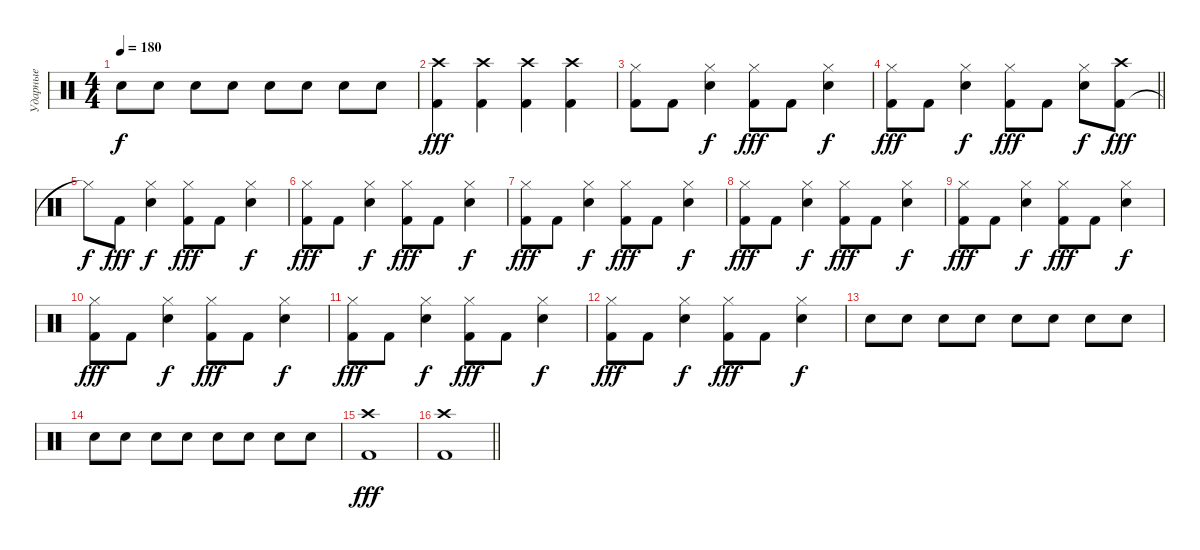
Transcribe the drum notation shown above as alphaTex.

\track ("Ударные" "Ударные") {instrument percussion}
\staff
\articulation defaults
\ts (4 4)
\tempo 180
\clef neutral
\ks c "Snare (hit) 2".8{dy f} "Snare (hit) 2".8 "Snare (hit) 2".8 "Snare (hit) 2".8 "Snare (hit) 2".8 "Snare (hit) 2".8 "Snare (hit) 2".8 "Snare (hit) 2".8
|
("Kick (hit) 2" "Crash high (hit)").4{dy fff} ("Kick (hit) 2" "Crash high (hit)").4 ("Kick (hit) 2" "Crash high (hit)").4 ("Kick (hit) 2" "Crash high (hit)").4 |
("Kick (hit) 2" "Hi-Hat (closed)").8 "Kick (hit) 2".8 ("Snare (hit) 2" "Hi-Hat (closed)").4{dy f} ("Kick (hit) 2" "Hi-Hat (closed)").8{dy fff} "Kick (hit) 2".8 ("Snare (hit) 2" "Hi-Hat (closed)").4{dy f} |
\barLineRight lightlight
("Kick (hit) 2" "Hi-Hat (closed)").8{dy fff} "Kick (hit) 2".8 ("Snare (hit) 2" "Hi-Hat (closed)").4{dy f} ("Kick (hit) 2" "Hi-Hat (closed)").8{dy fff} "Kick (hit) 2".8 ("Snare (hit) 2" "Hi-Hat (closed)").8{dy f} ("Kick (hit) 2" "Crash high (hit)").8{dy fff} |
"Hi-Hat (closed)"{t}.8{dy f} "Kick (hit) 2".8{dy fff} ("Snare (hit) 2" "Hi-Hat (closed)").4{dy f} ("Kick (hit) 2" "Hi-Hat (closed)").8{dy fff} "Kick (hit) 2".8 ("Snare (hit) 2" "Hi-Hat (closed)").4{dy f} |
("Kick (hit) 2" "Hi-Hat (closed)").8{dy fff} "Kick (hit) 2".8 ("Snare (hit) 2" "Hi-Hat (closed)").4{dy f} ("Kick (hit) 2" "Hi-Hat (closed)").8{dy fff} "Kick (hit) 2".8 ("Snare (hit) 2" "Hi-Hat (closed)").4{dy f} |
("Kick (hit) 2" "Hi-Hat (closed)").8{dy fff} "Kick (hit) 2".8 ("Snare (hit) 2" "Hi-Hat (closed)").4{dy f} ("Kick (hit) 2" "Hi-Hat (closed)").8{dy fff} "Kick (hit) 2".8 ("Snare (hit) 2" "Hi-Hat (closed)").4{dy f} |
("Kick (hit) 2" "Hi-Hat (closed)").8{dy fff} "Kick (hit) 2".8 ("Snare (hit) 2" "Hi-Hat (closed)").4{dy f} ("Kick (hit) 2" "Hi-Hat (closed)").8{dy fff} "Kick (hit) 2".8 ("Snare (hit) 2" "Hi-Hat (closed)").4{dy f} |
("Kick (hit) 2" "Hi-Hat (closed)").8{dy fff} "Kick (hit) 2".8 ("Snare (hit) 2" "Hi-Hat (closed)").4{dy f} ("Kick (hit) 2" "Hi-Hat (closed)").8{dy fff} "Kick (hit) 2".8 ("Snare (hit) 2" "Hi-Hat (closed)").4{dy f} |
("Kick (hit) 2" "Hi-Hat (closed)").8{dy fff} "Kick (hit) 2".8 ("Snare (hit) 2" "Hi-Hat (closed)").4{dy f} ("Kick (hit) 2" "Hi-Hat (closed)").8{dy fff} "Kick (hit) 2".8 ("Snare (hit) 2" "Hi-Hat (closed)").4{dy f} |
("Kick (hit) 2" "Hi-Hat (closed)").8{dy fff} "Kick (hit) 2".8 ("Snare (hit) 2" "Hi-Hat (closed)").4{dy f} ("Kick (hit) 2" "Hi-Hat (closed)").8{dy fff} "Kick (hit) 2".8 ("Snare (hit) 2" "Hi-Hat (closed)").4{dy f} |
("Kick (hit) 2" "Hi-Hat (closed)").8{dy fff} "Kick (hit) 2".8 ("Snare (hit) 2" "Hi-Hat (closed)").4{dy f} ("Kick (hit) 2" "Hi-Hat (closed)").8{dy fff} "Kick (hit) 2".8 ("Snare (hit) 2" "Hi-Hat (closed)").4{dy f} |
"Snare (hit) 2".8 "Snare (hit) 2".8 "Snare (hit) 2".8 "Snare (hit) 2".8 "Snare (hit) 2".8 "Snare (hit) 2".8 "Snare (hit) 2".8 "Snare (hit) 2".8 |
"Snare (hit) 2".8 "Snare (hit) 2".8 "Snare (hit) 2".8 "Snare (hit) 2".8 "Snare (hit) 2".8 "Snare (hit) 2".8 "Snare (hit) 2".8 "Snare (hit) 2".8 |
("Kick (hit) 2" "Crash high (hit)").1{dy fff} |
\barLineRight lightlight
("Kick (hit) 2" "Crash high (hit)").1
